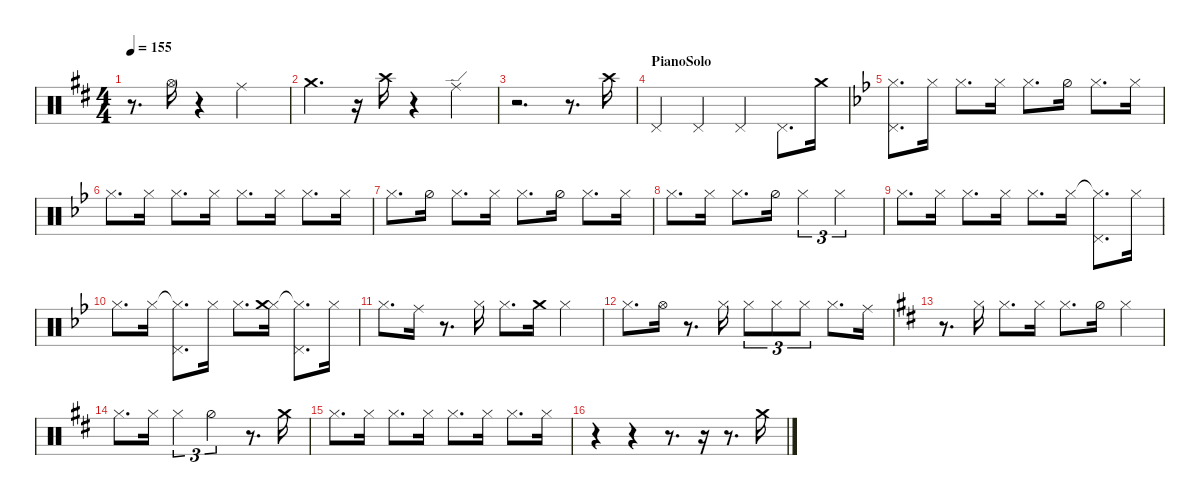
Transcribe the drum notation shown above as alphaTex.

\hideDynamics
\bracketExtendMode nobrackets
\singleTrackTrackNamePolicy hidden
\multiTrackTrackNamePolicy hidden
\otherSystemsTrackNameOrientation horizontal
\track ("Perc" "Drums") {instrument percussion}
\staff {score}
\articulation defaults
\ts (4 4)
\tempo 155
\clef neutral
\ks d
r.8{d dy mf beam Down} "Hi-Hat (open)"{acc forcenatural}.16{dy mp beam Down} r.4{beam Down} "Ride (middle)"{acc forcenatural}.2{beam Down} |
"Crash medium (hit)"{acc forcenatural}.4{d dy mf beam Down} r.16{beam Down} "Crash high (hit)"{acc forcenatural}.16{dy mp beam Down} r.4{beam Down} "Ride (edge)"{acc forcenatural}.4{beam Down} |
r.2{d beam Down} r.8{d beam Down} "Crash high (hit)"{acc forcenatural}.16{beam Down} |
\section ("" "PianoSolo")
"Pedal Hi-Hat (hit)"{acc forcenatural}.4{beam Up} "Pedal Hi-Hat (hit)"{acc forcenatural}.4{beam Up} "Pedal Hi-Hat (hit)"{acc forcenatural}.4{beam Up} "Pedal Hi-Hat (hit)"{acc forcenatural}.8{d beam Down} "Crash medium (hit)"{acc forcenatural}.16{dy mf beam Down} |
\ks bb
("Hi-Hat (closed)"{acc forcenatural} "Pedal Hi-Hat (hit)"{acc forcenatural}).8{d dy mp beam Down} "Hi-Hat (closed)"{acc forcenatural}.16{dy p beam Down} "Hi-Hat (closed)"{acc forcenatural}.8{d dy mp beam Down} "Hi-Hat (closed)"{acc forcenatural}.16{dy p beam Down} "Hi-Hat (closed)"{acc forcenatural}.8{d dy mp beam Down} "Hi-Hat (half)"{acc forcenatural}.16{beam Down} "Hi-Hat (closed)"{acc forcenatural}.8{d beam Down} "Hi-Hat (closed)"{acc forcenatural}.16{dy p beam Down} |
"Hi-Hat (closed)"{acc forcenatural}.8{d dy mp beam Down} "Hi-Hat (closed)"{acc forcenatural}.16{dy p beam Down} "Hi-Hat (closed)"{acc forcenatural}.8{d dy mp beam Down} "Hi-Hat (closed)"{acc forcenatural}.16{dy p beam Down} "Hi-Hat (closed)"{acc forcenatural}.8{d dy mp beam Down} "Hi-Hat (closed)"{acc forcenatural}.16{beam Down} "Hi-Hat (closed)"{acc forcenatural}.8{d beam Down} "Hi-Hat (closed)"{acc forcenatural}.16{dy p beam Down} |
"Hi-Hat (closed)"{acc forcenatural}.8{d dy mp beam Down} "Hi-Hat (half)"{acc forcenatural}.16{dy p beam Down} "Hi-Hat (closed)"{acc forcenatural}.8{d dy mp beam Down} "Hi-Hat (closed)"{acc forcenatural}.16{dy p beam Down} "Hi-Hat (closed)"{acc forcenatural}.8{d dy mp beam Down} "Hi-Hat (half)"{acc forcenatural}.16{dy p beam Down} "Hi-Hat (closed)"{acc forcenatural}.8{d dy mp beam Down} "Hi-Hat (closed)"{acc forcenatural}.16{dy p beam Down} |
"Hi-Hat (closed)"{acc forcenatural}.8{d dy mp beam Down} "Hi-Hat (closed)"{acc forcenatural}.16{dy p beam Down} "Hi-Hat (closed)"{acc forcenatural}.8{d dy mp beam Down} "Hi-Hat (half)"{acc forcenatural}.16{dy p beam Down} "Hi-Hat (closed)"{acc forcenatural}.4{tu (3 2) dy mp beam Down} "Hi-Hat (closed)"{acc forcenatural}.2{tu (3 2) beam Down} |
"Hi-Hat (closed)"{acc forcenatural}.8{d beam Down} "Hi-Hat (closed)"{acc forcenatural}.16{dy p beam Down} "Hi-Hat (closed)"{acc forcenatural}.8{d dy mp beam Down} "Hi-Hat (closed)"{acc forcenatural}.16{dy p beam Down} "Hi-Hat (closed)"{acc forcenatural}.8{d dy mp beam Down} "Hi-Hat (closed)"{acc forcenatural}.16{beam Down} ("Hi-Hat (closed)"{t acc forcenatural} "Pedal Hi-Hat (hit)"{acc forcenatural}).8{d beam Down} "Hi-Hat (closed)"{acc forcenatural}.16{dy p beam Down} |
"Hi-Hat (closed)"{acc forcenatural}.8{d dy mp beam Down} "Hi-Hat (closed)"{acc forcenatural}.16{dy p beam Down} ("Hi-Hat (closed)"{t acc forcenatural} "Pedal Hi-Hat (hit)"{acc forcenatural}).8{d dy mp beam Down} "Hi-Hat (closed)"{acc forcenatural}.16{dy p beam Down} "Hi-Hat (closed)"{acc forcenatural}.8{d dy mp beam Down} ("Hi-Hat (closed)"{acc forcenatural} "Crash medium (hit)"{acc forcenatural}).16{beam Down} ("Hi-Hat (closed)"{t acc forcenatural} "Pedal Hi-Hat (hit)"{acc forcenatural}).8{d beam Down} "Hi-Hat (closed)"{acc forcenatural}.16{dy p beam Down} |
"Hi-Hat (closed)"{acc forcenatural}.8{d dy mp beam Down} "Ride (middle)"{acc forcenatural}.16{dy mf beam Down} r.8{d beam Down} "Hi-Hat (closed)"{acc forcenatural}.16{dy p beam Down} "Hi-Hat (closed)"{acc forcenatural}.8{d dy mp beam Down} "Crash medium (hit)"{acc forcenatural}.16{dy mf beam Down} "Hi-Hat (closed)"{acc forcenatural}.4{beam Down} |
"Hi-Hat (closed)"{acc forcenatural}.8{d dy mp beam Down} "Hi-Hat (open)"{acc forcenatural}.16{beam Down} r.8{d beam Down} "Hi-Hat (closed)"{acc forcenatural}.16{dy p beam Down} "Hi-Hat (closed)"{acc forcenatural}.8{tu (3 2) dy mp beam Down} "Hi-Hat (closed)"{acc forcenatural}.8{tu (3 2) dy mf beam Down} "Hi-Hat (closed)"{acc forcenatural}.8{tu (3 2) dy p beam Down} "Hi-Hat (closed)"{acc forcenatural}.8{d dy mp beam Down} "Ride (middle)"{acc forcenatural}.16{dy mf beam Down} |
\ks d
r.8{d beam Down} "Hi-Hat (closed)"{acc forcenatural}.16{dy p beam Down} "Hi-Hat (closed)"{acc forcenatural}.8{d dy mp beam Down} "Hi-Hat (closed)"{acc forcenatural}.16{dy p beam Down} "Hi-Hat (closed)"{acc forcenatural}.8{d dy mp beam Down} "Hi-Hat (half)"{acc forcenatural}.16{dy p beam Down} "Hi-Hat (closed)"{acc forcenatural}.4{beam Down} |
"Hi-Hat (closed)"{acc forcenatural}.8{d dy mp beam Down} "Hi-Hat (closed)"{acc forcenatural}.16{dy p beam Down} "Hi-Hat (closed)"{acc forcenatural}.4{tu (3 2) beam Down} "Hi-Hat (half)"{acc forcenatural}.2{tu (3 2) beam Down} r.8{d beam Down} "Crash medium (hit)"{acc forcenatural}.16{dy mf beam Down} |
"Hi-Hat (closed)"{acc forcenatural}.8{d dy mp beam Down} "Hi-Hat (closed)"{acc forcenatural}.16{dy p beam Down} "Hi-Hat (closed)"{acc forcenatural}.8{d dy mp beam Down} "Hi-Hat (closed)"{acc forcenatural}.16{dy p beam Down} "Hi-Hat (closed)"{acc forcenatural}.8{d dy mp beam Down} "Hi-Hat (closed)"{acc forcenatural}.16{dy p beam Down} "Hi-Hat (closed)"{acc forcenatural}.8{d dy mp beam Down} "Hi-Hat (closed)"{acc forcenatural}.16{dy p beam Down} |
r.4{beam Down} r.4{beam Down} r.8{d beam Down} r.16{beam Down} r.8{d beam Down} "Crash medium (hit)"{acc forcenatural}.16{dy mp beam Down}
